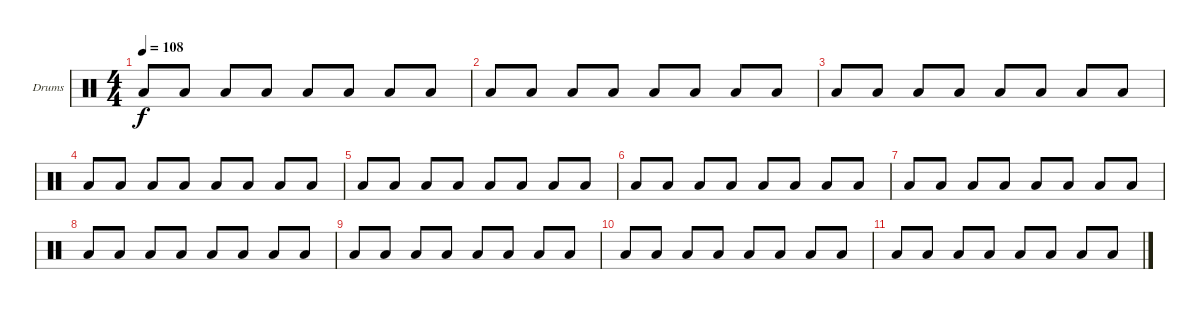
\defaultSystemsLayout 4
\bracketExtendMode groupsimilarinstruments
\firstSystemTrackNameOrientation horizontal
\otherSystemsTrackNameOrientation horizontal
\track ("Drumkit" "Drums") {instrument percussion}
\staff {score}
\articulation defaults
\ts (4 4)
\tempo 108
\clef neutral
\ks c "Low Tom (hit)".8{dy f} "Low Tom (hit)".8 "Low Tom (hit)".8 "Low Tom (hit)".8 "Low Tom (hit)".8 "Low Tom (hit)".8 "Low Tom (hit)".8 "Low Tom (hit)".8
|
"Low Tom (hit)".8 "Low Tom (hit)".8 "Low Tom (hit)".8 "Low Tom (hit)".8 "Low Tom (hit)".8 "Low Tom (hit)".8 "Low Tom (hit)".8 "Low Tom (hit)".8 |
"Low Tom (hit)".8 "Low Tom (hit)".8 "Low Tom (hit)".8 "Low Tom (hit)".8 "Low Tom (hit)".8 "Low Tom (hit)".8 "Low Tom (hit)".8 "Low Tom (hit)".8 |
"Low Tom (hit)".8 "Low Tom (hit)".8 "Low Tom (hit)".8 "Low Tom (hit)".8 "Low Tom (hit)".8 "Low Tom (hit)".8 "Low Tom (hit)".8 "Low Tom (hit)".8 |
"Low Tom (hit)".8 "Low Tom (hit)".8 "Low Tom (hit)".8 "Low Tom (hit)".8 "Low Tom (hit)".8 "Low Tom (hit)".8 "Low Tom (hit)".8 "Low Tom (hit)".8 |
"Low Tom (hit)".8 "Low Tom (hit)".8 "Low Tom (hit)".8 "Low Tom (hit)".8 "Low Tom (hit)".8 "Low Tom (hit)".8 "Low Tom (hit)".8 "Low Tom (hit)".8 |
"Low Tom (hit)".8 "Low Tom (hit)".8 "Low Tom (hit)".8 "Low Tom (hit)".8 "Low Tom (hit)".8 "Low Tom (hit)".8 "Low Tom (hit)".8 "Low Tom (hit)".8 |
"Low Tom (hit)".8 "Low Tom (hit)".8 "Low Tom (hit)".8 "Low Tom (hit)".8 "Low Tom (hit)".8 "Low Tom (hit)".8 "Low Tom (hit)".8 "Low Tom (hit)".8 |
"Low Tom (hit)".8 "Low Tom (hit)".8 "Low Tom (hit)".8 "Low Tom (hit)".8 "Low Tom (hit)".8 "Low Tom (hit)".8 "Low Tom (hit)".8 "Low Tom (hit)".8 |
"Low Tom (hit)".8 "Low Tom (hit)".8 "Low Tom (hit)".8 "Low Tom (hit)".8 "Low Tom (hit)".8 "Low Tom (hit)".8 "Low Tom (hit)".8 "Low Tom (hit)".8 |
"Low Tom (hit)".8 "Low Tom (hit)".8 "Low Tom (hit)".8 "Low Tom (hit)".8 "Low Tom (hit)".8 "Low Tom (hit)".8 "Low Tom (hit)".8 "Low Tom (hit)".8
